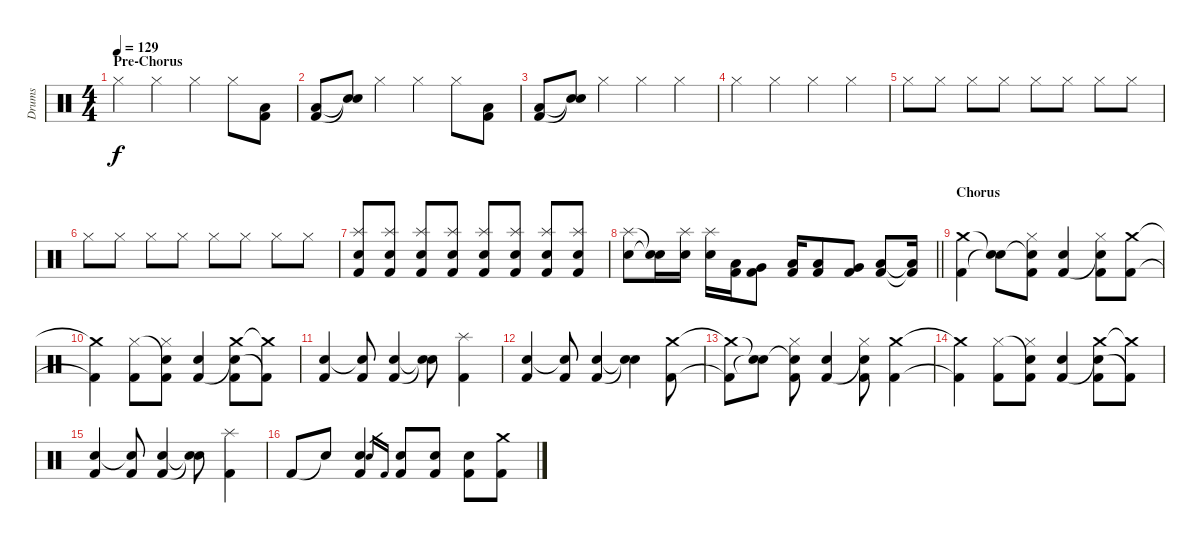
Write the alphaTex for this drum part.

\track ("Drums" "Drums") {instrument percussion}
\staff {score}
\articulation defaults
\ts (4 4)
\section ("" "Pre-Chorus")
\tempo 129
\clef neutral
\ks c "Hi-Hat (closed)".4{dy f} "Hi-Hat (closed)".4 "Hi-Hat (closed)".4 "Hi-Hat (closed)".8
("Low Tom (hit)" "Kick (hit) 2").8 |
("Low Tom (hit)" "Kick (hit) 2").8 ("Snare (hit)"{t} "Snare (hit)"{t}).8 "Hi-Hat (closed)".4 "Hi-Hat (closed)".4 "Hi-Hat (closed)".8 ("Low Tom (hit)" "Kick (hit) 2").8 |
("Low Tom (hit)" "Kick (hit) 2").8 ("Snare (hit)"{t} "Snare (hit)"{t}).8 "Hi-Hat (closed)".4 "Hi-Hat (closed)".4 "Hi-Hat (closed)".4 |
"Hi-Hat (closed)".4 "Hi-Hat (closed)".4 "Hi-Hat (closed)".4 "Hi-Hat (closed)".4 |
"Hi-Hat (closed)".8 "Hi-Hat (closed)".8 "Hi-Hat (closed)".8 "Hi-Hat (closed)".8 "Hi-Hat (closed)".8 "Hi-Hat (closed)".8 "Hi-Hat (closed)".8 "Hi-Hat (closed)".8 |
"Hi-Hat (closed)".8 "Hi-Hat (closed)".8 "Hi-Hat (closed)".8 "Hi-Hat (closed)".8 "Hi-Hat (closed)".8 "Hi-Hat (closed)".8 "Hi-Hat (closed)".8 "Hi-Hat (closed)".8 |
("Splash (hit)" "Electric Snare (hit)" "Kick (hit) 2").8 ("Splash (hit)" "Electric Snare (hit)" "Kick (hit) 2").8 ("Splash (hit)" "Electric Snare (hit)" "Kick (hit) 2").8 ("Splash (hit)" "Electric Snare (hit)" "Kick (hit) 2").8 ("Splash (hit)" "Electric Snare (hit)" "Kick (hit) 2").8 ("Splash (hit)" "Electric Snare (hit)" "Kick (hit) 2").8 ("Splash (hit)" "Electric Snare (hit)" "Kick (hit) 2").8 ("Splash (hit)" "Electric Snare (hit)" "Kick (hit) 2").8 |
\barLineRight lightlight
("Splash (hit)" "Electric Snare (hit)").8 ("Snare (hit)"{t} "Snare (hit)"{t}).16 ("Splash (hit)" "Electric Snare (hit)").16 ("Splash (hit)" "Electric Snare (hit)").16 ("Low Tom (hit)" "Kick (hit) 2").16 ("Very Low Tom (hit)" "Kick (hit) 2").8 ("Low Tom (hit)" "Kick (hit) 2").16 ("Low Tom (hit)" "Kick (hit) 2").8 ("Very Low Tom (hit)" "Kick (hit) 2").8 ("Low Floor Tom (hit)" "Kick (hit) 2").8 ("Low Floor Tom (hit)"{t} "Kick (hit) 2"{t}).16 |
\section ("" "Chorus")
("Crash medium (hit)" "Kick (hit) 2").4 ("Snare (hit)"{t} "Snare (hit)"{t}).8 ("Snare (hit)"{t} "Hi-Hat (closed)" "Kick (hit) 2").8 ("Electric Snare (hit)" "Kick (hit) 2").4 ("Hi-Hat (closed)" "Snare (hit)"{t} "Kick (hit) 2").8 ("Crash medium (hit)" "Kick (hit) 2").8 |
("Crash medium (hit)"{t} "Kick (hit) 2"{t}).4 ("Hi-Hat (closed)" "Kick (hit) 2").8 ("Snare (hit)"{t} "Hi-Hat (closed)" "Kick (hit) 2").8 ("Electric Snare (hit)" "Kick (hit) 2").4 ("Crash medium (hit)" "Snare (hit)"{t} "Kick (hit) 2").8 ("Crash medium (hit)"{t} "Kick (hit) 2"{t}).8 |
("Electric Snare (hit)" "Kick (hit) 2").4 ("Snare (hit)"{t} "Kick (hit) 2").8 ("Electric Snare (hit)" "Kick (hit) 2").4 ("Snare (hit)"{t} "Snare (hit)"{t}).8 ("Splash (hit)" "Kick (hit) 2").4 |
("Electric Snare (hit)" "Kick (hit) 2").4 ("Snare (hit)"{t} "Kick (hit) 2").8 ("Electric Snare (hit)" "Kick (hit) 2").4 ("Snare (hit)"{t} "Snare (hit)"{t}).4 ("Crash medium (hit)" "Kick (hit) 2").8 |
("Crash medium (hit)"{t} "Kick (hit) 2"{t}).8 ("Snare (hit)"{t} "Snare (hit)"{t}).8 ("Snare (hit)"{t} "Hi-Hat (closed)" "Kick (hit) 2").8 ("Electric Snare (hit)" "Kick (hit) 2").4 ("Hi-Hat (closed)" "Snare (hit)"{t} "Kick (hit) 2").8 ("Crash medium (hit)" "Kick (hit) 2").4 |
("Crash medium (hit)"{t} "Kick (hit) 2"{t}).4 ("Hi-Hat (closed)" "Kick (hit) 2").8 ("Snare (hit)"{t} "Hi-Hat (closed)" "Kick (hit) 2").8 ("Electric Snare (hit)" "Kick (hit) 2").4 ("Crash medium (hit)" "Snare (hit)"{t} "Kick (hit) 2").8 ("Crash medium (hit)"{t} "Kick (hit) 2"{t}).8 |
("Electric Snare (hit)" "Kick (hit) 2").4 ("Snare (hit)"{t} "Kick (hit) 2").8 ("Electric Snare (hit)" "Kick (hit) 2").4 ("Snare (hit)"{t} "Snare (hit)"{t}).8 ("Splash (hit)" "Kick (hit) 2").4 |
"Kick (hit) 2".8 "Snare (hit)"{t}.8 ("Electric Snare (hit)" "Kick (hit) 2").4 "Electric Snare (hit)".16{gr} "Kick (hit) 2".16{gr} ("Electric Snare (hit)" "Kick (hit) 2").8 ("Electric Snare (hit)" "Kick (hit) 2").8 ("Electric Snare (hit)" "Kick (hit) 2").8 ("Crash medium (hit)" "Kick (hit) 2").8
